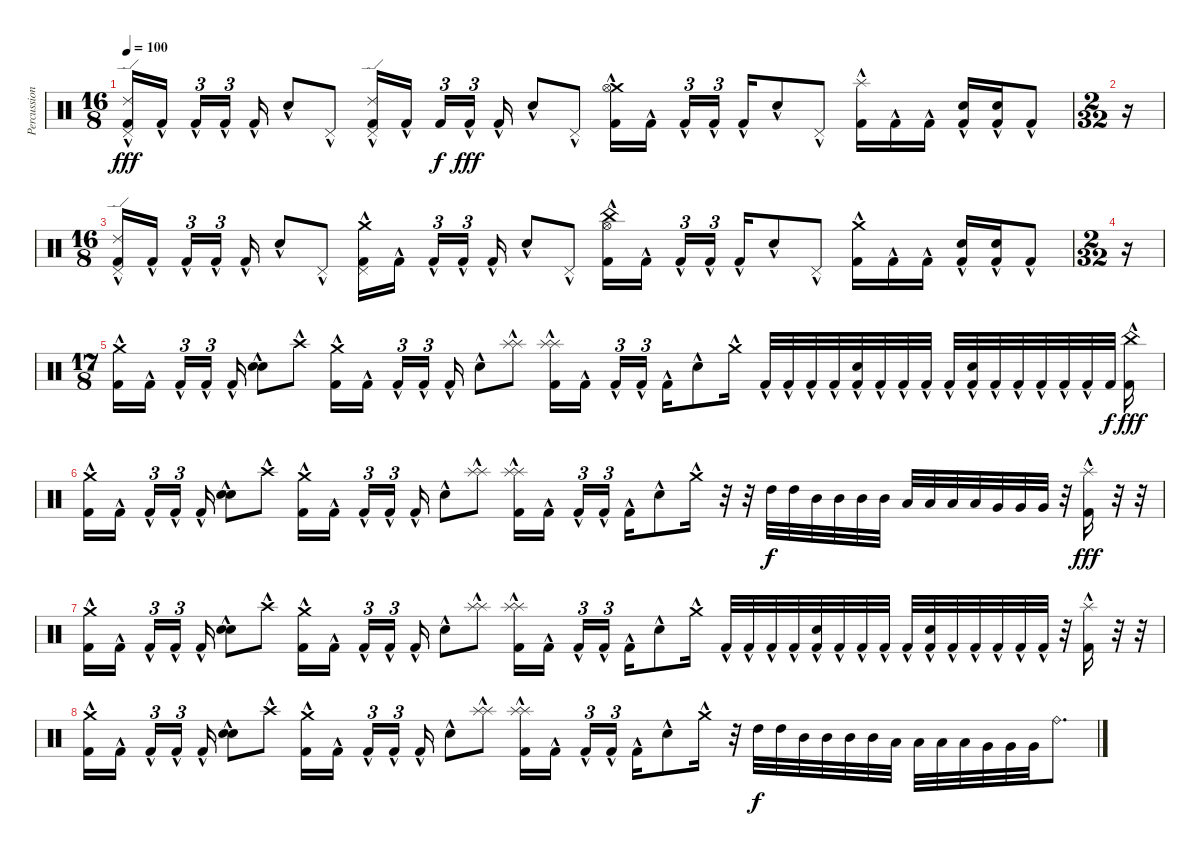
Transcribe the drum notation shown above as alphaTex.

\track ("Percussion" "Percussion") {instrument percussion}
\staff {score}
\articulation defaults
\ts (16 8)
\tempo 100
\clef neutral
\ks c
("Ride (edge) 2"{hac} "Pedal Hi-Hat (hit)"{hac} "Kick (hit) 2"{hac}).16{dy fff} "Kick (hit) 2"{hac}.16 "Kick (hit) 2"{hac}.16{tu (3 2)} "Kick (hit) 2"{hac}.16{tu (3 2) beam splitsecondary} "Kick (hit) 2"{hac}.16 "Snare (hit) 2"{hac}.8 "Pedal Hi-Hat (hit)"{hac}.8 ("Ride (edge) 2"{hac} "Pedal Hi-Hat (hit)"{hac} "Kick (hit) 2"{hac}).16 "Kick (hit) 2"{hac}.16 "Kick (hit) 2".16{tu (3 2) dy f} "Kick (hit) 2"{hac}.16{tu (3 2) dy fff beam splitsecondary} "Kick (hit) 2"{hac}.16 "Snare (hit) 2"{hac}.8 "Pedal Hi-Hat (hit)"{hac}.8 ("Crash medium (hit)"{hac} "Hi-Hat (open)"{hac} "Kick (hit) 2"{hac}).16 "Kick (hit) 2"{hac}.16 "Kick (hit) 2"{hac}.16{tu (3 2)} "Kick (hit) 2"{hac}.16{tu (3 2)} "Kick (hit) 2"{hac}.16 "Snare (hit) 2"{hac}.8 "Pedal Hi-Hat (hit)"{hac}.8 ("Splash (hit)"{hac} "Kick (hit) 2"{hac}).16 "Kick (hit) 2"{hac}.16 "Kick (hit) 2"{hac}.16 ("Snare (hit) 2"{hac} "Kick (hit) 2"{hac}).16 ("Snare (hit) 2"{hac} "Kick (hit) 2"{hac}).16 "Kick (hit) 2"{hac}.8 |
\ts (2 32)
r.16 |
\ts (16 8)
("Ride (edge) 2"{hac} "Pedal Hi-Hat (hit)"{hac} "Kick (hit) 2"{hac}).16 "Kick (hit) 2"{hac}.16 "Kick (hit) 2"{hac}.16{tu (3 2)} "Kick (hit) 2"{hac}.16{tu (3 2) beam splitsecondary} "Kick (hit) 2"{hac}.16 "Snare (hit) 2"{hac}.8 "Pedal Hi-Hat (hit)"{hac}.8 ("Crash medium (hit)"{hac} "Pedal Hi-Hat (hit)"{hac} "Kick (hit) 2"{hac}).16 "Kick (hit) 2"{hac}.16 "Kick (hit) 2"{hac}.16{tu (3 2)} "Kick (hit) 2"{hac}.16{tu (3 2) beam splitsecondary} "Kick (hit) 2"{hac}.16 "Snare (hit) 2"{hac}.8 "Pedal Hi-Hat (hit)"{hac}.8 ("China (hit)"{hac} "Hi-Hat (open)"{hac} "Kick (hit) 2"{hac}).16 "Kick (hit) 2"{hac}.16 "Kick (hit) 2"{hac}.16{tu (3 2)} "Kick (hit) 2"{hac}.16{tu (3 2)} "Kick (hit) 2"{hac}.16 "Snare (hit) 2"{hac}.8 "Pedal Hi-Hat (hit)"{hac}.8 ("Crash medium (hit)"{hac} "Kick (hit) 2"{hac}).16 "Kick (hit) 2"{hac}.16 "Kick (hit) 2"{hac}.16 ("Snare (hit) 2"{hac} "Kick (hit) 2"{hac}).16 ("Snare (hit) 2"{hac} "Kick (hit) 2"{hac}).16 "Kick (hit) 2"{hac}.8 |
\ts (2 32)
r.16 |
\ts (17 8)
("Crash medium (hit)"{hac} "Kick (hit) 2"{hac}).16 "Kick (hit) 2"{hac}.16 "Kick (hit) 2"{hac}.16{tu (3 2)} "Kick (hit) 2"{hac}.16{tu (3 2) beam splitsecondary} "Kick (hit) 2"{hac}.16 ("Snare (hit) 2"{hac} "Electric Snare (hit)"{hac}).8 "Crash high (hit)"{hac}.8 ("Crash medium (hit)"{hac} "Kick (hit) 2"{hac}).16 "Kick (hit) 2"{hac}.16 "Kick (hit) 2"{hac}.16{tu (3 2)} "Kick (hit) 2"{hac}.16{tu (3 2) beam splitsecondary} "Kick (hit) 2"{hac}.16 "Snare (hit) 2"{hac}.8 ("Splash (hit)" "Splash (hit)"{hac}).8 ("Splash (hit)" "Splash (hit)"{hac} "Kick (hit) 2"{hac}).16 "Kick (hit) 2"{hac}.16 "Kick (hit) 2"{hac}.16{tu (3 2)} "Kick (hit) 2"{hac}.16{tu (3 2)} "Kick (hit) 2"{hac}.16 "Snare (hit) 2"{hac}.8 "Crash medium (hit)"{hac}.16 "Kick (hit) 2"{hac}.32 "Kick (hit) 2"{hac}.32 "Kick (hit) 2"{hac}.32 "Kick (hit) 2"{hac}.32 ("Snare (hit) 2" "Kick (hit) 2"{hac}).32 "Kick (hit) 2"{hac}.32 "Kick (hit) 2"{hac}.32 "Kick (hit) 2"{hac}.32 "Kick (hit) 2"{hac}.32 ("Snare (hit) 2" "Kick (hit) 2"{hac}).32 "Kick (hit) 2"{hac}.32 "Kick (hit) 2"{hac}.32 "Kick (hit) 2"{hac}.32 "Kick (hit) 2"{hac}.32 "Kick (hit) 2"{hac}.32 "Kick (hit) 2".32{dy f} ("China (hit)"{hac} "Kick (hit) 2"{hac}).16{dy fff} |
("Crash medium (hit)"{hac} "Kick (hit) 2"{hac}).16 "Kick (hit) 2"{hac}.16 "Kick (hit) 2"{hac}.16{tu (3 2)} "Kick (hit) 2"{hac}.16{tu (3 2) beam splitsecondary} "Kick (hit) 2"{hac}.16 ("Snare (hit) 2"{hac} "Electric Snare (hit)"{hac}).8 "Crash high (hit)"{hac}.8 ("Crash medium (hit)"{hac} "Kick (hit) 2"{hac}).16 "Kick (hit) 2"{hac}.16 "Kick (hit) 2"{hac}.16{tu (3 2)} "Kick (hit) 2"{hac}.16{tu (3 2) beam splitsecondary} "Kick (hit) 2"{hac}.16 "Snare (hit) 2"{hac}.8 ("Splash (hit)" "Splash (hit)"{hac}).8 ("Splash (hit)" "Splash (hit)"{hac} "Kick (hit) 2"{hac}).16 "Kick (hit) 2"{hac}.16 "Kick (hit) 2"{hac}.16{tu (3 2)} "Kick (hit) 2"{hac}.16{tu (3 2)} "Kick (hit) 2"{hac}.16 "Snare (hit) 2"{hac}.8 "Crash medium (hit)"{hac}.16 r.32 r.32 "High Tom (hit)".32{dy f} "High Tom (hit)".32 "Mid Tom (hit)".32 "Mid Tom (hit)".32 "Mid Tom (hit)".32 "Mid Tom (hit)".32 "Low Tom (hit)".32 "Low Tom (hit)".32 "Low Tom (hit)".32 "Low Tom (hit)".32 "Very Low Tom (hit)".32 "Very Low Tom (hit)".32 "Very Low Tom (hit)".32 r.32 ("Splash (hit)"{hac} "Kick (hit) 2"{hac}).16{dy fff} r.32 r.32 |
("Crash medium (hit)"{hac} "Kick (hit) 2"{hac}).16 "Kick (hit) 2"{hac}.16 "Kick (hit) 2"{hac}.16{tu (3 2)} "Kick (hit) 2"{hac}.16{tu (3 2) beam splitsecondary} "Kick (hit) 2"{hac}.16 ("Snare (hit) 2"{hac} "Electric Snare (hit)"{hac}).8 "Crash high (hit)"{hac}.8 ("Crash medium (hit)"{hac} "Kick (hit) 2"{hac}).16 "Kick (hit) 2"{hac}.16 "Kick (hit) 2"{hac}.16{tu (3 2)} "Kick (hit) 2"{hac}.16{tu (3 2) beam splitsecondary} "Kick (hit) 2"{hac}.16 "Snare (hit) 2"{hac}.8 ("Splash (hit)" "Splash (hit)"{hac}).8 ("Splash (hit)" "Splash (hit)"{hac} "Kick (hit) 2"{hac}).16 "Kick (hit) 2"{hac}.16 "Kick (hit) 2"{hac}.16{tu (3 2)} "Kick (hit) 2"{hac}.16{tu (3 2)} "Kick (hit) 2"{hac}.16 "Snare (hit) 2"{hac}.8 "Crash medium (hit)"{hac}.16 "Kick (hit) 2"{hac}.32 "Kick (hit) 2"{hac}.32 "Kick (hit) 2"{hac}.32 "Kick (hit) 2"{hac}.32 ("Snare (hit) 2" "Kick (hit) 2"{hac}).32 "Kick (hit) 2"{hac}.32 "Kick (hit) 2"{hac}.32 "Kick (hit) 2"{hac}.32 "Kick (hit) 2"{hac}.32 ("Snare (hit) 2" "Kick (hit) 2"{hac}).32 "Kick (hit) 2"{hac}.32 "Kick (hit) 2"{hac}.32 "Kick (hit) 2"{hac}.32 "Kick (hit) 2"{hac}.32 "Kick (hit) 2"{hac}.32 r.32 ("Splash (hit)"{hac} "Kick (hit) 2"{hac}).16 r.32 r.32 |
("Crash medium (hit)"{hac} "Kick (hit) 2"{hac}).16 "Kick (hit) 2"{hac}.16 "Kick (hit) 2"{hac}.16{tu (3 2)} "Kick (hit) 2"{hac}.16{tu (3 2) beam splitsecondary} "Kick (hit) 2"{hac}.16 ("Snare (hit) 2"{hac} "Electric Snare (hit)"{hac}).8 "Crash high (hit)"{hac}.8 ("Crash medium (hit)"{hac} "Kick (hit) 2"{hac}).16 "Kick (hit) 2"{hac}.16 "Kick (hit) 2"{hac}.16{tu (3 2)} "Kick (hit) 2"{hac}.16{tu (3 2) beam splitsecondary} "Kick (hit) 2"{hac}.16 "Snare (hit) 2"{hac}.8 ("Splash (hit)" "Splash (hit)"{hac}).8 ("Splash (hit)" "Splash (hit)"{hac} "Kick (hit) 2"{hac}).16 "Kick (hit) 2"{hac}.16 "Kick (hit) 2"{hac}.16{tu (3 2)} "Kick (hit) 2"{hac}.16{tu (3 2)} "Kick (hit) 2"{hac}.16 "Snare (hit) 2"{hac}.8 "Crash medium (hit)"{hac}.16 r.32 "High Tom (hit)".32{dy f} "High Tom (hit)".32 "Mid Tom (hit)".32 "Mid Tom (hit)".32 "Mid Tom (hit)".32 "Mid Tom (hit)".32 "Low Tom (hit)".32 "Low Tom (hit)".32 "Low Tom (hit)".32 "Low Tom (hit)".32 "Very Low Tom (hit)".32 "Very Low Tom (hit)".32 "Very Low Tom (hit)".32 "Ride (bell)".8{d}
